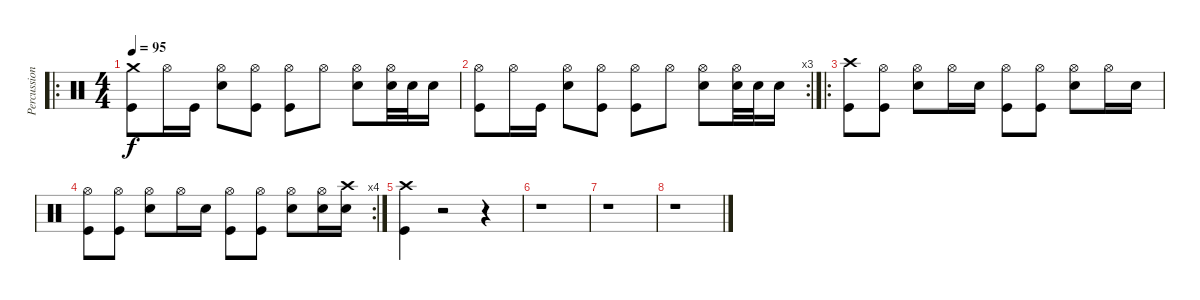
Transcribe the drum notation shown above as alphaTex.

\track ("Percussions" "Percussion") {instrument percussion}
\staff {score}
\articulation defaults
\ro
\ts (4 4)
\tempo 95
\clef neutral
\ks c
("Crash medium (hit)" "Kick (hit)").8{dy f} "Hi-Hat (open)".16 "Kick (hit)".16 ("Hi-Hat (open)" "Snare (hit) 2").8 ("Hi-Hat (open)" "Kick (hit)").8 ("Hi-Hat (open)" "Kick (hit)").8 "Hi-Hat (open)".8 ("Hi-Hat (open)" "Snare (hit) 2").8 ("Hi-Hat (open)" "Snare (hit) 2").32 "Snare (hit) 2".32 "Snare (hit) 2".16 |
\rc 3
("Hi-Hat (open)" "Kick (hit)").8 "Hi-Hat (open)".16 "Kick (hit)".16 ("Hi-Hat (open)" "Snare (hit) 2").8 ("Hi-Hat (open)" "Kick (hit)").8 ("Hi-Hat (open)" "Kick (hit)").8 "Hi-Hat (open)".8 ("Hi-Hat (open)" "Snare (hit) 2").8 ("Hi-Hat (open)" "Snare (hit) 2").32 "Snare (hit) 2".32 "Snare (hit) 2".16 |
\ro
("Crash high (hit)" "Kick (hit)").8 ("Hi-Hat (open)" "Kick (hit)").8 ("Hi-Hat (open)" "Snare (hit) 2").8 "Hi-Hat (open)".16 "Snare (hit) 2".16 ("Hi-Hat (open)" "Kick (hit)").8 ("Hi-Hat (open)" "Kick (hit)").8 ("Hi-Hat (open)" "Snare (hit) 2").8 "Hi-Hat (open)".16 "Snare (hit) 2".16 |
\rc 4
("Hi-Hat (open)" "Kick (hit)").8 ("Hi-Hat (open)" "Kick (hit)").8 ("Hi-Hat (open)" "Snare (hit) 2").8 "Hi-Hat (open)".16 "Snare (hit) 2".16 ("Hi-Hat (open)" "Kick (hit)").8 ("Hi-Hat (open)" "Kick (hit)").8 ("Hi-Hat (open)" "Snare (hit) 2").8 ("Hi-Hat (open)" "Snare (hit) 2").16 ("Crash high (hit)" "Snare (hit) 2").16 |
("Crash high (hit)" "Kick (hit)").4 r.2 r.4 |
r.1 |
r.1 |
r.1
